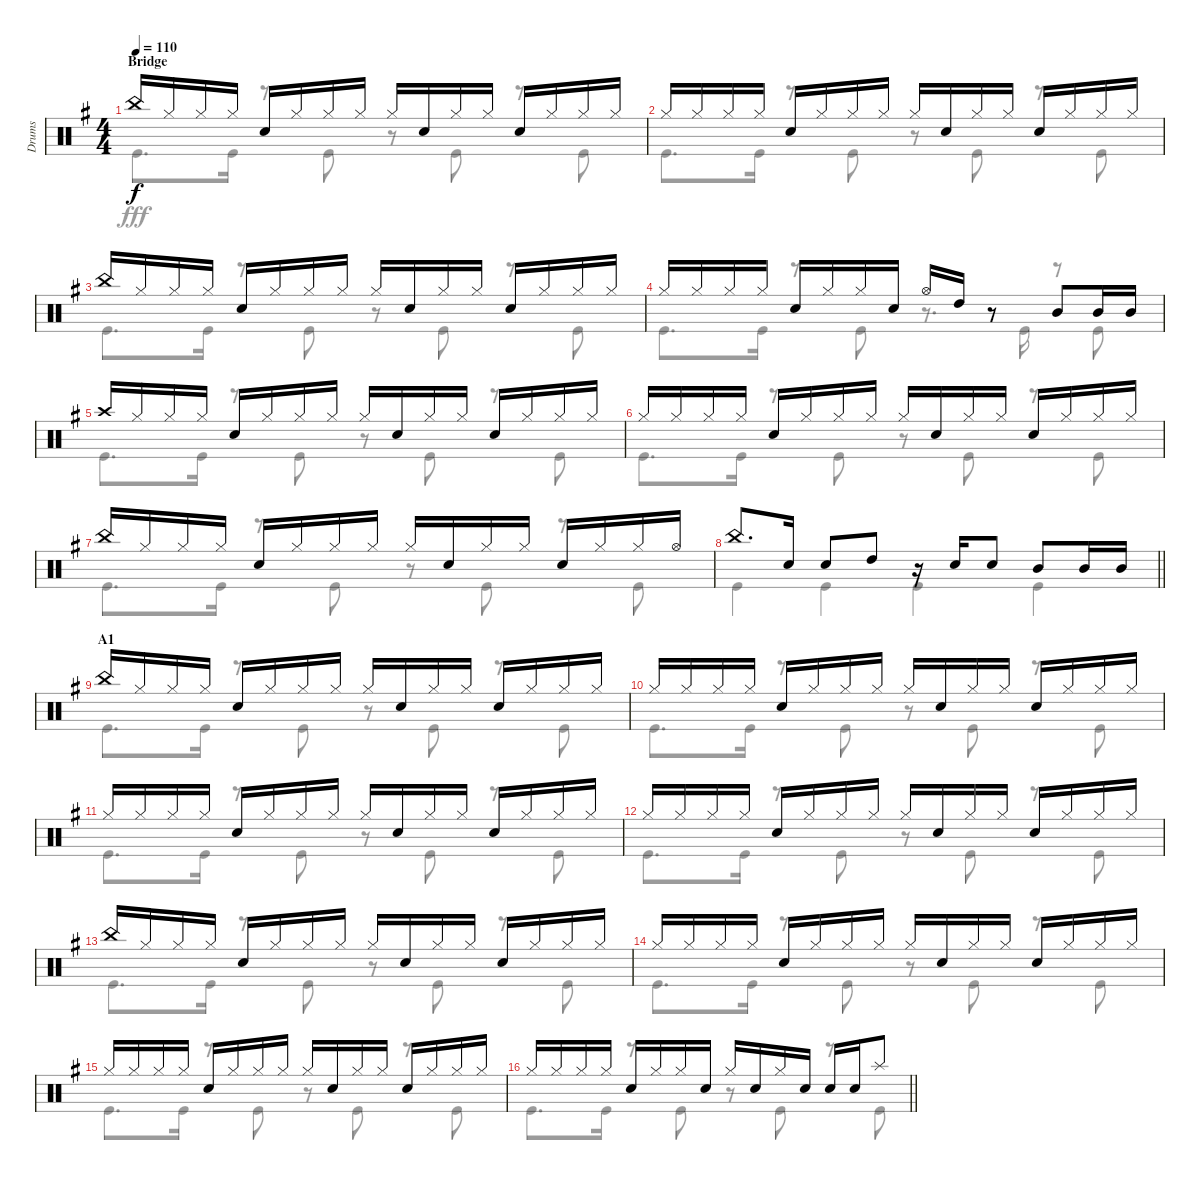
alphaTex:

\track ("Drums" "Drums") {instrument percussion}
\staff {score}
\articulation defaults
\voice
\ts (4 4)
\section ("" "Bridge")
\tempo 110
\clef neutral
\ks g "China (hit)".16{dy f} "Hi-Hat (closed)".16 "Hi-Hat (closed)".16 "Hi-Hat (closed)".16 "Snare (hit) 2".16 "Hi-Hat (closed)".16 "Hi-Hat (closed)".16 "Hi-Hat (closed)".16 "Hi-Hat (closed)".16 "Snare (hit) 2".16 "Hi-Hat (closed)".16 "Hi-Hat (closed)".16 "Snare (hit) 2".16 "Hi-Hat (closed)".16 "Hi-Hat (closed)".16 "Hi-Hat (closed)".16
|
"Hi-Hat (closed)".16 "Hi-Hat (closed)".16 "Hi-Hat (closed)".16 "Hi-Hat (closed)".16 "Snare (hit) 2".16 "Hi-Hat (closed)".16 "Hi-Hat (closed)".16 "Hi-Hat (closed)".16 "Hi-Hat (closed)".16 "Snare (hit) 2".16 "Hi-Hat (closed)".16 "Hi-Hat (closed)".16 "Snare (hit) 2".16 "Hi-Hat (closed)".16 "Hi-Hat (closed)".16 "Hi-Hat (closed)".16 |
"China (hit)".16 "Hi-Hat (closed)".16 "Hi-Hat (closed)".16 "Hi-Hat (closed)".16 "Snare (hit) 2".16 "Hi-Hat (closed)".16 "Hi-Hat (closed)".16 "Hi-Hat (closed)".16 "Hi-Hat (closed)".16 "Snare (hit) 2".16 "Hi-Hat (closed)".16 "Hi-Hat (closed)".16 "Snare (hit) 2".16 "Hi-Hat (closed)".16 "Hi-Hat (closed)".16 "Hi-Hat (closed)".16 |
"Hi-Hat (closed)".16 "Hi-Hat (closed)".16 "Hi-Hat (closed)".16 "Hi-Hat (closed)".16 "Snare (hit) 2".16 "Hi-Hat (closed)".16 "Hi-Hat (closed)".16 "Snare (hit) 2".16 "Hi-Hat (open)".16 "High Tom (hit)".16 r.8 "Mid Tom (hit)".8 "Mid Tom (hit)".16 "Mid Tom (hit)".16 |
"Crash high (hit)".16 "Hi-Hat (closed)".16 "Hi-Hat (closed)".16 "Hi-Hat (closed)".16 "Snare (hit) 2".16 "Hi-Hat (closed)".16 "Hi-Hat (closed)".16 "Hi-Hat (closed)".16 "Hi-Hat (closed)".16 "Snare (hit) 2".16 "Hi-Hat (closed)".16 "Hi-Hat (closed)".16 "Snare (hit) 2".16 "Hi-Hat (closed)".16 "Hi-Hat (closed)".16 "Hi-Hat (closed)".16 |
"Hi-Hat (closed)".16 "Hi-Hat (closed)".16 "Hi-Hat (closed)".16 "Hi-Hat (closed)".16 "Snare (hit) 2".16 "Hi-Hat (closed)".16 "Hi-Hat (closed)".16 "Hi-Hat (closed)".16 "Hi-Hat (closed)".16 "Snare (hit) 2".16 "Hi-Hat (closed)".16 "Hi-Hat (closed)".16 "Snare (hit) 2".16 "Hi-Hat (closed)".16 "Hi-Hat (closed)".16 "Hi-Hat (closed)".16 |
"China (hit)".16 "Hi-Hat (closed)".16 "Hi-Hat (closed)".16 "Hi-Hat (closed)".16 "Snare (hit) 2".16 "Hi-Hat (closed)".16 "Hi-Hat (closed)".16 "Hi-Hat (closed)".16 "Hi-Hat (closed)".16 "Snare (hit) 2".16 "Hi-Hat (closed)".16 "Hi-Hat (closed)".16 "Snare (hit) 2".16 "Hi-Hat (closed)".16 "Hi-Hat (closed)".16 "Hi-Hat (open)".16 |
\barLineRight lightlight "China (hit)".8{d} "Snare (hit) 2".16 "Snare (hit) 2".8 "High Tom (hit)".8
r.16 "Snare (hit) 2".16 "Snare (hit) 2".8 "Mid Tom (hit)".8 "Mid Tom (hit)".16 "Mid Tom (hit)".16 |
\section ("" "A1")
"China (hit)".16 "Hi-Hat (closed)".16 "Hi-Hat (closed)".16 "Hi-Hat (closed)".16 "Snare (hit) 2".16 "Hi-Hat (closed)".16 "Hi-Hat (closed)".16 "Hi-Hat (closed)".16 "Hi-Hat (closed)".16 "Snare (hit) 2".16 "Hi-Hat (closed)".16 "Hi-Hat (closed)".16 "Snare (hit) 2".16 "Hi-Hat (closed)".16 "Hi-Hat (closed)".16 "Hi-Hat (closed)".16 |
"Hi-Hat (closed)".16 "Hi-Hat (closed)".16 "Hi-Hat (closed)".16 "Hi-Hat (closed)".16 "Snare (hit) 2".16 "Hi-Hat (closed)".16 "Hi-Hat (closed)".16 "Hi-Hat (closed)".16 "Hi-Hat (closed)".16 "Snare (hit) 2".16 "Hi-Hat (closed)".16 "Hi-Hat (closed)".16 "Snare (hit) 2".16 "Hi-Hat (closed)".16 "Hi-Hat (closed)".16 "Hi-Hat (closed)".16 |
"Hi-Hat (closed)".16 "Hi-Hat (closed)".16 "Hi-Hat (closed)".16 "Hi-Hat (closed)".16 "Snare (hit) 2".16 "Hi-Hat (closed)".16 "Hi-Hat (closed)".16 "Hi-Hat (closed)".16 "Hi-Hat (closed)".16 "Snare (hit) 2".16 "Hi-Hat (closed)".16 "Hi-Hat (closed)".16 "Snare (hit) 2".16 "Hi-Hat (closed)".16 "Hi-Hat (closed)".16 "Hi-Hat (closed)".16 |
"Hi-Hat (closed)".16 "Hi-Hat (closed)".16 "Hi-Hat (closed)".16 "Hi-Hat (closed)".16 "Snare (hit) 2".16 "Hi-Hat (closed)".16 "Hi-Hat (closed)".16 "Hi-Hat (closed)".16 "Hi-Hat (closed)".16 "Snare (hit) 2".16 "Hi-Hat (closed)".16 "Hi-Hat (closed)".16 "Snare (hit) 2".16 "Hi-Hat (closed)".16 "Hi-Hat (closed)".16 "Hi-Hat (closed)".16 |
"China (hit)".16 "Hi-Hat (closed)".16 "Hi-Hat (closed)".16 "Hi-Hat (closed)".16 "Snare (hit) 2".16 "Hi-Hat (closed)".16 "Hi-Hat (closed)".16 "Hi-Hat (closed)".16 "Hi-Hat (closed)".16 "Snare (hit) 2".16 "Hi-Hat (closed)".16 "Hi-Hat (closed)".16 "Snare (hit) 2".16 "Hi-Hat (closed)".16 "Hi-Hat (closed)".16 "Hi-Hat (closed)".16 |
"Hi-Hat (closed)".16 "Hi-Hat (closed)".16 "Hi-Hat (closed)".16 "Hi-Hat (closed)".16 "Snare (hit) 2".16 "Hi-Hat (closed)".16 "Hi-Hat (closed)".16 "Hi-Hat (closed)".16 "Hi-Hat (closed)".16 "Snare (hit) 2".16 "Hi-Hat (closed)".16 "Hi-Hat (closed)".16 "Snare (hit) 2".16 "Hi-Hat (closed)".16 "Hi-Hat (closed)".16 "Hi-Hat (closed)".16 |
"Hi-Hat (closed)".16 "Hi-Hat (closed)".16 "Hi-Hat (closed)".16 "Hi-Hat (closed)".16 "Snare (hit) 2".16 "Hi-Hat (closed)".16 "Hi-Hat (closed)".16 "Hi-Hat (closed)".16 "Hi-Hat (closed)".16 "Snare (hit) 2".16 "Hi-Hat (closed)".16 "Hi-Hat (closed)".16 "Snare (hit) 2".16 "Hi-Hat (closed)".16 "Hi-Hat (closed)".16 "Hi-Hat (closed)".16 |
\barLineRight lightlight "Hi-Hat (closed)".16 "Hi-Hat (closed)".16 "Hi-Hat (closed)".16 "Hi-Hat (closed)".16 "Snare (hit) 2".16 "Hi-Hat (closed)".16 "Hi-Hat (closed)".16 "Snare (hit) 2".16 "Hi-Hat (closed)".16 "Snare (hit) 2".16 "Hi-Hat (closed)".16 "Snare (hit) 2".16 "Snare (hit) 2".16 "Snare (hit) 2".16 "Splash (hit)".8
\voice
\clef neutral
\ottava regular
\simile none
\ks g "Kick (hit)".8{d dy fff} "Kick (hit)".16
r.8 "Kick (hit)".8 r.8 "Kick (hit)".8 r.8 "Kick (hit)".8 |
"Kick (hit)".8{d} "Kick (hit)".16 r.8 "Kick (hit)".8 r.8 "Kick (hit)".8 r.8 "Kick (hit)".8 |
"Kick (hit)".8{d} "Kick (hit)".16 r.8 "Kick (hit)".8 r.8 "Kick (hit)".8 r.8 "Kick (hit)".8 |
"Kick (hit)".8{d} "Kick (hit)".16 r.8 "Kick (hit)".8 r.8{d} "Kick (hit)".16 r.8 "Kick (hit)".8 |
"Kick (hit)".8{d} "Kick (hit)".16 r.8 "Kick (hit)".8 r.8 "Kick (hit)".8 r.8 "Kick (hit)".8 |
"Kick (hit)".8{d} "Kick (hit)".16 r.8 "Kick (hit)".8 r.8 "Kick (hit)".8 r.8 "Kick (hit)".8 |
"Kick (hit)".8{d} "Kick (hit)".16 r.8 "Kick (hit)".8 r.8 "Kick (hit)".8 r.8 "Kick (hit)".8 |
\barLineRight lightlight "Kick (hit)".4 "Kick (hit)".4 "Kick (hit)".4 "Kick (hit)".4
|
"Kick (hit)".8{d} "Kick (hit)".16 r.8 "Kick (hit)".8 r.8 "Kick (hit)".8 r.8 "Kick (hit)".8 |
"Kick (hit)".8{d} "Kick (hit)".16 r.8 "Kick (hit)".8 r.8 "Kick (hit)".8 r.8 "Kick (hit)".8 |
"Kick (hit)".8{d} "Kick (hit)".16 r.8 "Kick (hit)".8 r.8 "Kick (hit)".8 r.8 "Kick (hit)".8 |
"Kick (hit)".8{d} "Kick (hit)".16 r.8 "Kick (hit)".8 r.8 "Kick (hit)".8 r.8 "Kick (hit)".8 |
"Kick (hit)".8{d} "Kick (hit)".16 r.8 "Kick (hit)".8 r.8 "Kick (hit)".8 r.8 "Kick (hit)".8 |
"Kick (hit)".8{d} "Kick (hit)".16 r.8 "Kick (hit)".8 r.8 "Kick (hit)".8 r.8 "Kick (hit)".8 |
"Kick (hit)".8{d} "Kick (hit)".16 r.8 "Kick (hit)".8 r.8 "Kick (hit)".8 r.8 "Kick (hit)".8 |
\barLineRight lightlight "Kick (hit)".8{d} "Kick (hit)".16
r.8 "Kick (hit)".8 r.8 "Kick (hit)".8 r.8 "Kick (hit)".8
